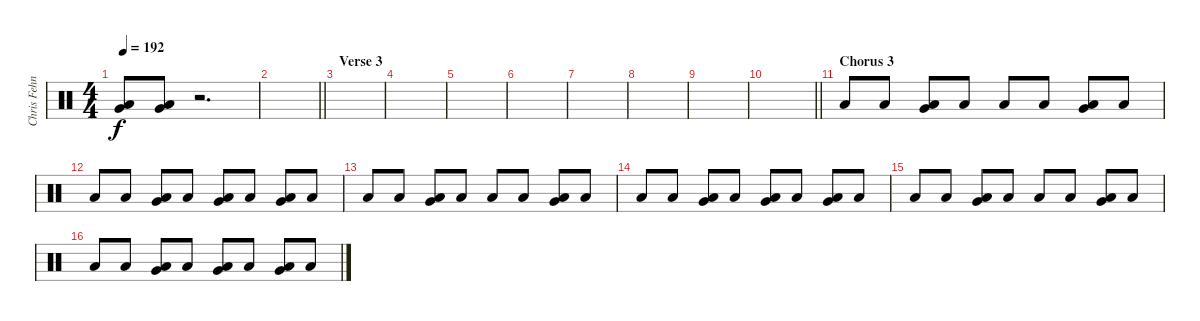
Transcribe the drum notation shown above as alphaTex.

\track ("Chris Fehn" "Chris Fehn") {instrument percussion}
\staff {score}
\articulation defaults
\ts (4 4)
\tempo 192
\clef neutral
\ks c
("Very Low Tom (hit)" "Low Floor Tom (hit)").8{dy f} ("Very Low Tom (hit)" "Low Floor Tom (hit)").8 r.2{d} |
\barLineRight lightlight
|
\section ("" "Verse 3")
|
|
|
|
|
|
|
\barLineRight lightlight
|
\section ("" "Chorus 3")
"Low Floor Tom (hit)".8 "Low Floor Tom (hit)".8 ("Very Low Tom (hit)" "Low Floor Tom (hit)").8 "Low Floor Tom (hit)".8 "Low Floor Tom (hit)".8 "Low Floor Tom (hit)".8 ("Very Low Tom (hit)" "Low Floor Tom (hit)").8 "Low Floor Tom (hit)".8 |
"Low Floor Tom (hit)".8 "Low Floor Tom (hit)".8 ("Very Low Tom (hit)" "Low Floor Tom (hit)").8 "Low Floor Tom (hit)".8 ("Very Low Tom (hit)" "Low Floor Tom (hit)").8 "Low Floor Tom (hit)".8 ("Very Low Tom (hit)" "Low Floor Tom (hit)").8 "Low Floor Tom (hit)".8 |
"Low Floor Tom (hit)".8 "Low Floor Tom (hit)".8 ("Very Low Tom (hit)" "Low Floor Tom (hit)").8 "Low Floor Tom (hit)".8 "Low Floor Tom (hit)".8 "Low Floor Tom (hit)".8 ("Very Low Tom (hit)" "Low Floor Tom (hit)").8 "Low Floor Tom (hit)".8 |
"Low Floor Tom (hit)".8 "Low Floor Tom (hit)".8 ("Very Low Tom (hit)" "Low Floor Tom (hit)").8 "Low Floor Tom (hit)".8 ("Very Low Tom (hit)" "Low Floor Tom (hit)").8 "Low Floor Tom (hit)".8 ("Very Low Tom (hit)" "Low Floor Tom (hit)").8 "Low Floor Tom (hit)".8 |
"Low Floor Tom (hit)".8 "Low Floor Tom (hit)".8 ("Very Low Tom (hit)" "Low Floor Tom (hit)").8 "Low Floor Tom (hit)".8 "Low Floor Tom (hit)".8 "Low Floor Tom (hit)".8 ("Very Low Tom (hit)" "Low Floor Tom (hit)").8 "Low Floor Tom (hit)".8 |
"Low Floor Tom (hit)".8 "Low Floor Tom (hit)".8 ("Very Low Tom (hit)" "Low Floor Tom (hit)").8 "Low Floor Tom (hit)".8 ("Very Low Tom (hit)" "Low Floor Tom (hit)").8 "Low Floor Tom (hit)".8 ("Very Low Tom (hit)" "Low Floor Tom (hit)").8 "Low Floor Tom (hit)".8
